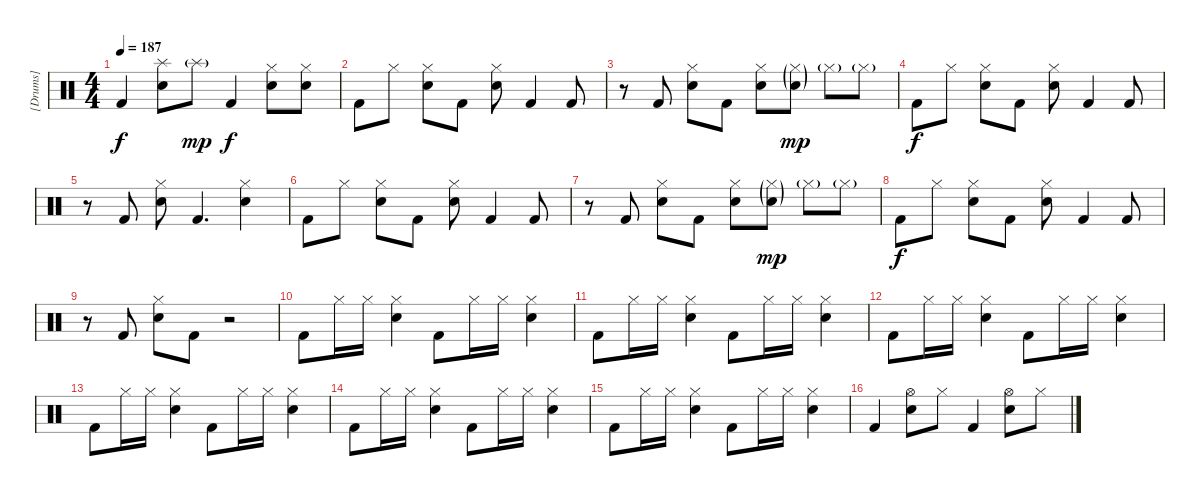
\track ("[Drums]" "[Drums]") {instrument percussion}
\staff {score}
\articulation defaults
\ts (4 4)
\tempo 187
\clef neutral
\ks c "Kick (hit) 2".4{dy f}
("Splash (hit)" "Electric Snare (hit)").8 "Splash (hit)"{g}.8{dy mp} "Kick (hit) 2".4{dy f} ("Hi-Hat (closed)" "Electric Snare (hit)").8 ("Hi-Hat (closed)" "Electric Snare (hit)").8 |
"Kick (hit) 2".8 "Hi-Hat (closed)".8 ("Hi-Hat (closed)" "Electric Snare (hit)").8 "Kick (hit) 2".8 ("Hi-Hat (closed)" "Electric Snare (hit)").8 "Kick (hit) 2".4 "Kick (hit) 2".8 |
r.8 "Kick (hit) 2".8 ("Hi-Hat (closed)" "Electric Snare (hit)").8 "Kick (hit) 2".8 ("Hi-Hat (closed)" "Electric Snare (hit)").8 ("Hi-Hat (closed)"{g} "Electric Snare (hit)"{g}).8{dy mp} "Hi-Hat (closed)"{g}.8 "Hi-Hat (closed)"{g}.8 |
"Kick (hit) 2".8{dy f} "Hi-Hat (closed)".8 ("Hi-Hat (closed)" "Electric Snare (hit)").8 "Kick (hit) 2".8 ("Hi-Hat (closed)" "Electric Snare (hit)").8 "Kick (hit) 2".4 "Kick (hit) 2".8 |
r.8 "Kick (hit) 2".8 ("Hi-Hat (closed)" "Electric Snare (hit)").8 "Kick (hit) 2".4{d} ("Hi-Hat (closed)" "Electric Snare (hit)").4 |
"Kick (hit) 2".8 "Hi-Hat (closed)".8 ("Hi-Hat (closed)" "Electric Snare (hit)").8 "Kick (hit) 2".8 ("Hi-Hat (closed)" "Electric Snare (hit)").8 "Kick (hit) 2".4 "Kick (hit) 2".8 |
r.8 "Kick (hit) 2".8 ("Hi-Hat (closed)" "Electric Snare (hit)").8 "Kick (hit) 2".8 ("Hi-Hat (closed)" "Electric Snare (hit)").8 ("Hi-Hat (closed)"{g} "Electric Snare (hit)"{g}).8{dy mp} "Hi-Hat (closed)"{g}.8 "Hi-Hat (closed)"{g}.8 |
"Kick (hit) 2".8{dy f} "Hi-Hat (closed)".8 ("Hi-Hat (closed)" "Electric Snare (hit)").8 "Kick (hit) 2".8 ("Hi-Hat (closed)" "Electric Snare (hit)").8 "Kick (hit) 2".4 "Kick (hit) 2".8 |
r.8 "Kick (hit) 2".8 ("Hi-Hat (closed)" "Electric Snare (hit)").8 "Kick (hit) 2".8 r.2 |
"Kick (hit) 2".8 "Hi-Hat (closed)".16 "Hi-Hat (closed)".16 ("Hi-Hat (closed)" "Electric Snare (hit)").4 "Kick (hit) 2".8 "Hi-Hat (closed)".16 "Hi-Hat (closed)".16 ("Hi-Hat (closed)" "Electric Snare (hit)").4 |
"Kick (hit) 2".8 "Hi-Hat (closed)".16 "Hi-Hat (closed)".16 ("Hi-Hat (closed)" "Electric Snare (hit)").4 "Kick (hit) 2".8 "Hi-Hat (closed)".16 "Hi-Hat (closed)".16 ("Hi-Hat (closed)" "Electric Snare (hit)").4 |
"Kick (hit) 2".8 "Hi-Hat (closed)".16 "Hi-Hat (closed)".16 ("Hi-Hat (closed)" "Electric Snare (hit)").4 "Kick (hit) 2".8 "Hi-Hat (closed)".16 "Hi-Hat (closed)".16 ("Hi-Hat (closed)" "Electric Snare (hit)").4 |
"Kick (hit) 2".8 "Hi-Hat (closed)".16 "Hi-Hat (closed)".16 ("Hi-Hat (closed)" "Electric Snare (hit)").4 "Kick (hit) 2".8 "Hi-Hat (closed)".16 "Hi-Hat (closed)".16 ("Hi-Hat (closed)" "Electric Snare (hit)").4 |
"Kick (hit) 2".8 "Hi-Hat (closed)".16 "Hi-Hat (closed)".16 ("Hi-Hat (closed)" "Electric Snare (hit)").4 "Kick (hit) 2".8 "Hi-Hat (closed)".16 "Hi-Hat (closed)".16 ("Hi-Hat (closed)" "Electric Snare (hit)").4 |
"Kick (hit) 2".8 "Hi-Hat (closed)".16 "Hi-Hat (closed)".16 ("Hi-Hat (closed)" "Electric Snare (hit)").4 "Kick (hit) 2".8 "Hi-Hat (closed)".16 "Hi-Hat (closed)".16 ("Hi-Hat (closed)" "Electric Snare (hit)").4 |
"Kick (hit) 2".4 ("Hi-Hat (open)" "Electric Snare (hit)").8 "Hi-Hat (closed)".8 "Kick (hit) 2".4 ("Hi-Hat (open)" "Electric Snare (hit)").8 "Hi-Hat (closed)".8
